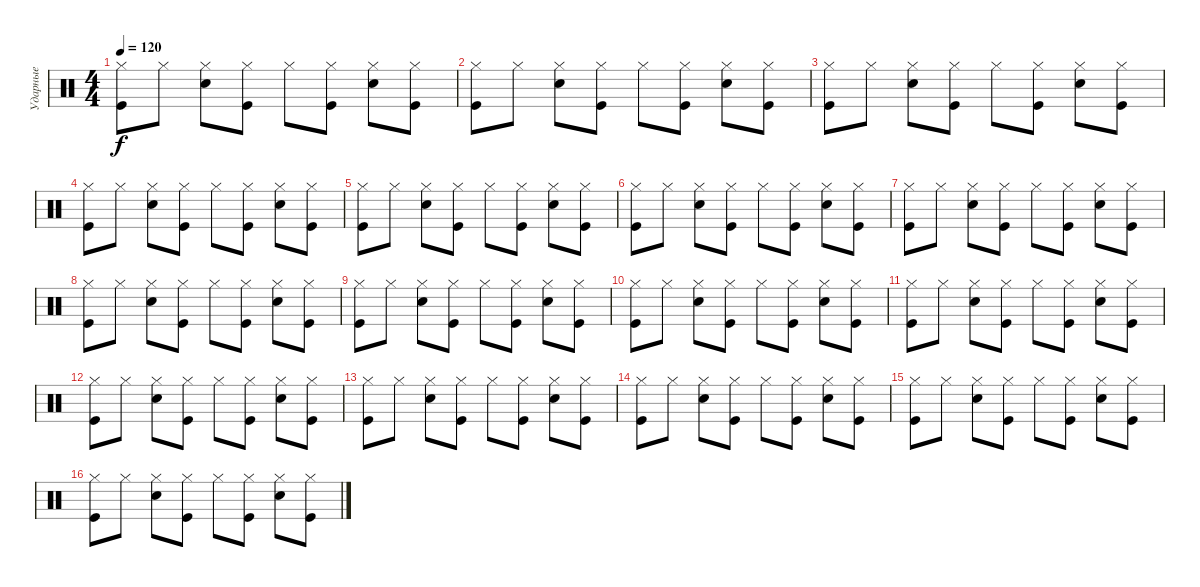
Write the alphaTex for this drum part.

\track ("Ударные" "Ударные") {instrument percussion}
\staff {score}
\articulation defaults
\ts (4 4)
\tempo 120
\clef neutral
\ks c
("Kick (hit)" "Hi-Hat (closed)").8{dy f} "Hi-Hat (closed)".8 ("Snare (hit) 2" "Hi-Hat (closed)").8 ("Kick (hit)" "Hi-Hat (closed)").8 "Hi-Hat (closed)".8 ("Kick (hit)" "Hi-Hat (closed)").8 ("Snare (hit) 2" "Hi-Hat (closed)").8 ("Kick (hit)" "Hi-Hat (closed)").8 |
("Kick (hit)" "Hi-Hat (closed)").8 "Hi-Hat (closed)".8 ("Snare (hit) 2" "Hi-Hat (closed)").8 ("Kick (hit)" "Hi-Hat (closed)").8 "Hi-Hat (closed)".8 ("Kick (hit)" "Hi-Hat (closed)").8 ("Snare (hit) 2" "Hi-Hat (closed)").8 ("Kick (hit)" "Hi-Hat (closed)").8 |
("Kick (hit)" "Hi-Hat (closed)").8 "Hi-Hat (closed)".8 ("Snare (hit) 2" "Hi-Hat (closed)").8 ("Kick (hit)" "Hi-Hat (closed)").8 "Hi-Hat (closed)".8 ("Kick (hit)" "Hi-Hat (closed)").8 ("Snare (hit) 2" "Hi-Hat (closed)").8 ("Kick (hit)" "Hi-Hat (closed)").8 |
("Kick (hit)" "Hi-Hat (closed)").8 "Hi-Hat (closed)".8 ("Snare (hit) 2" "Hi-Hat (closed)").8 ("Kick (hit)" "Hi-Hat (closed)").8 "Hi-Hat (closed)".8 ("Kick (hit)" "Hi-Hat (closed)").8 ("Snare (hit) 2" "Hi-Hat (closed)").8 ("Kick (hit)" "Hi-Hat (closed)").8 |
("Kick (hit)" "Hi-Hat (closed)").8 "Hi-Hat (closed)".8 ("Snare (hit) 2" "Hi-Hat (closed)").8 ("Kick (hit)" "Hi-Hat (closed)").8 "Hi-Hat (closed)".8 ("Kick (hit)" "Hi-Hat (closed)").8 ("Snare (hit) 2" "Hi-Hat (closed)").8 ("Kick (hit)" "Hi-Hat (closed)").8 |
("Kick (hit)" "Hi-Hat (closed)").8 "Hi-Hat (closed)".8 ("Snare (hit) 2" "Hi-Hat (closed)").8 ("Kick (hit)" "Hi-Hat (closed)").8 "Hi-Hat (closed)".8 ("Kick (hit)" "Hi-Hat (closed)").8 ("Snare (hit) 2" "Hi-Hat (closed)").8 ("Kick (hit)" "Hi-Hat (closed)").8 |
("Kick (hit)" "Hi-Hat (closed)").8 "Hi-Hat (closed)".8 ("Snare (hit) 2" "Hi-Hat (closed)").8 ("Kick (hit)" "Hi-Hat (closed)").8 "Hi-Hat (closed)".8 ("Kick (hit)" "Hi-Hat (closed)").8 ("Snare (hit) 2" "Hi-Hat (closed)").8 ("Kick (hit)" "Hi-Hat (closed)").8 |
("Kick (hit)" "Hi-Hat (closed)").8 "Hi-Hat (closed)".8 ("Snare (hit) 2" "Hi-Hat (closed)").8 ("Kick (hit)" "Hi-Hat (closed)").8 "Hi-Hat (closed)".8 ("Kick (hit)" "Hi-Hat (closed)").8 ("Snare (hit) 2" "Hi-Hat (closed)").8 ("Kick (hit)" "Hi-Hat (closed)").8 |
("Kick (hit)" "Hi-Hat (closed)").8 "Hi-Hat (closed)".8 ("Snare (hit) 2" "Hi-Hat (closed)").8 ("Kick (hit)" "Hi-Hat (closed)").8 "Hi-Hat (closed)".8 ("Kick (hit)" "Hi-Hat (closed)").8 ("Snare (hit) 2" "Hi-Hat (closed)").8 ("Kick (hit)" "Hi-Hat (closed)").8 |
("Kick (hit)" "Hi-Hat (closed)").8 "Hi-Hat (closed)".8 ("Snare (hit) 2" "Hi-Hat (closed)").8 ("Kick (hit)" "Hi-Hat (closed)").8 "Hi-Hat (closed)".8 ("Kick (hit)" "Hi-Hat (closed)").8 ("Snare (hit) 2" "Hi-Hat (closed)").8 ("Kick (hit)" "Hi-Hat (closed)").8 |
("Kick (hit)" "Hi-Hat (closed)").8 "Hi-Hat (closed)".8 ("Snare (hit) 2" "Hi-Hat (closed)").8 ("Kick (hit)" "Hi-Hat (closed)").8 "Hi-Hat (closed)".8 ("Kick (hit)" "Hi-Hat (closed)").8 ("Snare (hit) 2" "Hi-Hat (closed)").8 ("Kick (hit)" "Hi-Hat (closed)").8 |
("Kick (hit)" "Hi-Hat (closed)").8 "Hi-Hat (closed)".8 ("Snare (hit) 2" "Hi-Hat (closed)").8 ("Kick (hit)" "Hi-Hat (closed)").8 "Hi-Hat (closed)".8 ("Kick (hit)" "Hi-Hat (closed)").8 ("Snare (hit) 2" "Hi-Hat (closed)").8 ("Kick (hit)" "Hi-Hat (closed)").8 |
("Kick (hit)" "Hi-Hat (closed)").8 "Hi-Hat (closed)".8 ("Snare (hit) 2" "Hi-Hat (closed)").8 ("Kick (hit)" "Hi-Hat (closed)").8 "Hi-Hat (closed)".8 ("Kick (hit)" "Hi-Hat (closed)").8 ("Snare (hit) 2" "Hi-Hat (closed)").8 ("Kick (hit)" "Hi-Hat (closed)").8 |
("Kick (hit)" "Hi-Hat (closed)").8 "Hi-Hat (closed)".8 ("Snare (hit) 2" "Hi-Hat (closed)").8 ("Kick (hit)" "Hi-Hat (closed)").8 "Hi-Hat (closed)".8 ("Kick (hit)" "Hi-Hat (closed)").8 ("Snare (hit) 2" "Hi-Hat (closed)").8 ("Kick (hit)" "Hi-Hat (closed)").8 |
("Kick (hit)" "Hi-Hat (closed)").8 "Hi-Hat (closed)".8 ("Snare (hit) 2" "Hi-Hat (closed)").8 ("Kick (hit)" "Hi-Hat (closed)").8 "Hi-Hat (closed)".8 ("Kick (hit)" "Hi-Hat (closed)").8 ("Snare (hit) 2" "Hi-Hat (closed)").8 ("Kick (hit)" "Hi-Hat (closed)").8 |
("Kick (hit)" "Hi-Hat (closed)").8 "Hi-Hat (closed)".8 ("Snare (hit) 2" "Hi-Hat (closed)").8 ("Kick (hit)" "Hi-Hat (closed)").8 "Hi-Hat (closed)".8 ("Kick (hit)" "Hi-Hat (closed)").8 ("Snare (hit) 2" "Hi-Hat (closed)").8 ("Kick (hit)" "Hi-Hat (closed)").8
